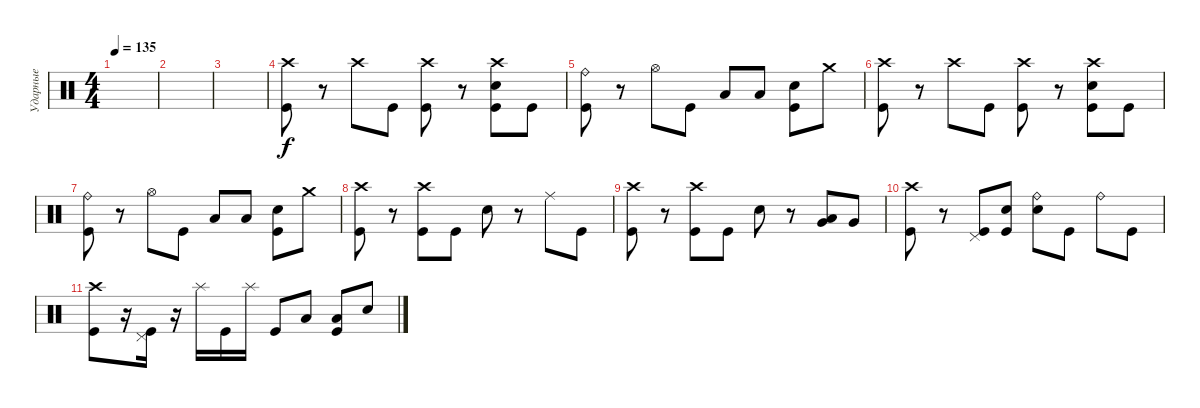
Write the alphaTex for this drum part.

\track ("Ударные" "Ударные") {instrument percussion}
\staff {score}
\articulation defaults
\ts (4 4)
\tempo 135
\clef neutral
\ks c
|
|
|
("Crash high (hit)" "Kick (hit)").8 r.8 "Crash high (hit)".8 "Kick (hit)".8 ("Crash high (hit)" "Kick (hit)").8 r.8 ("Crash high (hit)" "Electric Snare (hit)" "Kick (hit)").8 "Kick (hit)".8 |
("Ride (bell)" "Kick (hit)").8 r.8 "Hi-Hat (open)".8 "Kick (hit)".8 "Low Tom (hit)".8 "Low Tom (hit)".8 ("Electric Snare (hit)" "Kick (hit)").8 "Crash medium (hit)".8 |
("Crash high (hit)" "Kick (hit)").8 r.8 "Crash high (hit)".8 "Kick (hit)".8 ("Crash high (hit)" "Kick (hit)").8 r.8 ("Crash high (hit)" "Electric Snare (hit)" "Kick (hit)").8 "Kick (hit)".8 |
("Ride (bell)" "Kick (hit)").8 r.8 "Hi-Hat (open)".8 "Kick (hit)".8 "Low Tom (hit)".8 "Low Tom (hit)".8 ("Electric Snare (hit)" "Kick (hit)").8 "Crash medium (hit)".8 |
("Crash high (hit)" "Kick (hit)").8 r.8 ("Crash high (hit)" "Kick (hit)").8 "Kick (hit)".8 "Electric Snare (hit)".8 r.8 "Ride (middle)".8 "Kick (hit)".8 |
("Crash high (hit)" "Kick (hit)").8 r.8 ("Crash high (hit)" "Kick (hit)").8 "Kick (hit)".8 "Electric Snare (hit)".8 r.8 ("Very Low Tom (hit)" "Low Floor Tom (hit)").8 "Very Low Tom (hit)".8 |
("Crash high (hit)" "Kick (hit)").8 r.8 ("Pedal Hi-Hat (hit)" "Kick (hit)").8 ("Electric Snare (hit)" "Kick (hit)").8 ("Ride (bell)" "Electric Snare (hit)").8 "Kick (hit)".8 "Ride (bell)".8 "Kick (hit)".8 |
("Crash high (hit)" "Kick (hit)").8 r.16 ("Pedal Hi-Hat (hit)" "Kick (hit)").16 r.16 "Splash (hit)".16 "Kick (hit)".16 "Splash (hit)".16 "Kick (hit)".8 "Low Tom (hit)".8 ("Low Tom (hit)" "Kick (hit)").8 "Electric Snare (hit)".8
